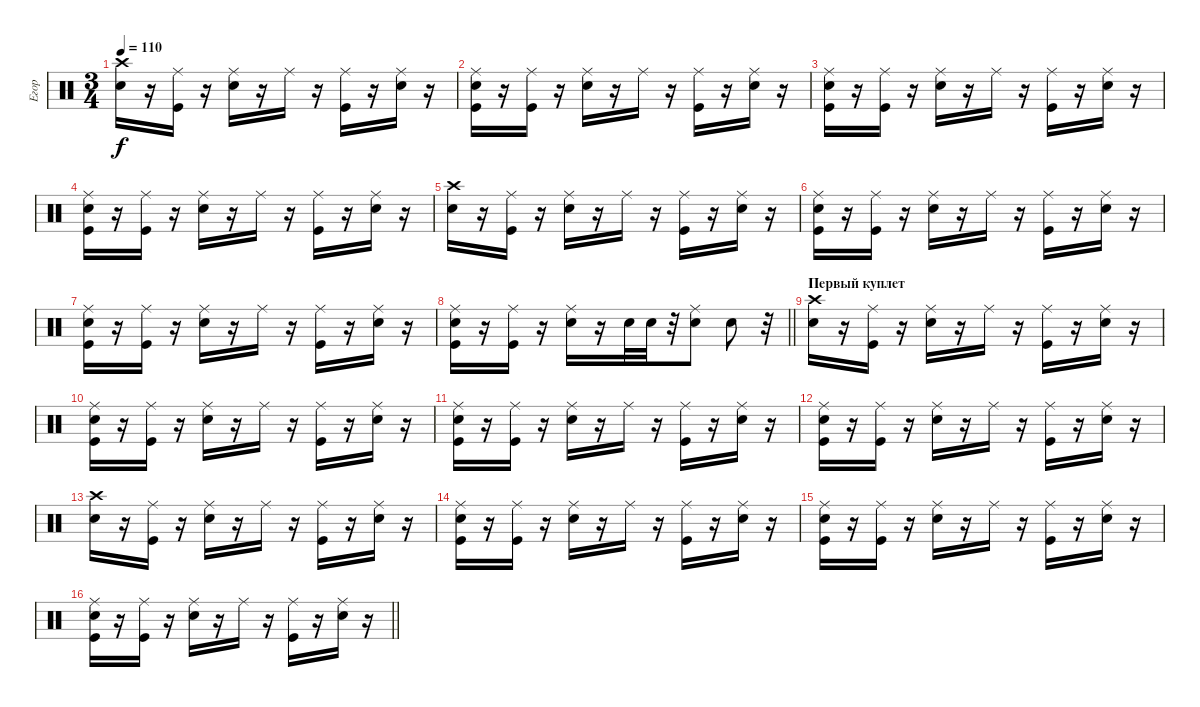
\track ("Егор" "Егор") {instrument percussion}
\staff {score}
\articulation defaults
\ts (3 4)
\tempo 110
\clef neutral
\ks c
("Snare (hit) 2" "Crash high (hit)").16{dy f} r.16 ("Ride (middle)" "Kick (hit)").16 r.16 ("Snare (hit) 2" "Ride (middle)").16 r.16 "Ride (middle)".16 r.16 ("Ride (middle)" "Kick (hit)").16 r.16 ("Ride (middle)" "Snare (hit) 2").16 r.16 |
("Kick (hit)" "Ride (middle)" "Snare (hit) 2").16 r.16 ("Ride (middle)" "Kick (hit)").16 r.16 ("Snare (hit) 2" "Ride (middle)").16 r.16 "Ride (middle)".16 r.16 ("Ride (middle)" "Kick (hit)").16 r.16 ("Ride (middle)" "Snare (hit) 2").16 r.16 |
("Kick (hit)" "Ride (middle)" "Snare (hit) 2").16 r.16 ("Ride (middle)" "Kick (hit)").16 r.16 ("Snare (hit) 2" "Ride (middle)").16 r.16 "Ride (middle)".16 r.16 ("Ride (middle)" "Kick (hit)").16 r.16 ("Ride (middle)" "Snare (hit) 2").16 r.16 |
("Kick (hit)" "Ride (middle)" "Snare (hit) 2").16 r.16 ("Ride (middle)" "Kick (hit)").16 r.16 ("Snare (hit) 2" "Ride (middle)").16 r.16 "Ride (middle)".16 r.16 ("Ride (middle)" "Kick (hit)").16 r.16 ("Ride (middle)" "Snare (hit) 2").16 r.16 |
("Snare (hit) 2" "Crash high (hit)").16 r.16 ("Ride (middle)" "Kick (hit)").16 r.16 ("Snare (hit) 2" "Ride (middle)").16 r.16 "Ride (middle)".16 r.16 ("Ride (middle)" "Kick (hit)").16 r.16 ("Ride (middle)" "Snare (hit) 2").16 r.16 |
("Kick (hit)" "Ride (middle)" "Snare (hit) 2").16 r.16 ("Ride (middle)" "Kick (hit)").16 r.16 ("Snare (hit) 2" "Ride (middle)").16 r.16 "Ride (middle)".16 r.16 ("Ride (middle)" "Kick (hit)").16 r.16 ("Ride (middle)" "Snare (hit) 2").16 r.16 |
("Kick (hit)" "Ride (middle)" "Snare (hit) 2").16 r.16 ("Ride (middle)" "Kick (hit)").16 r.16 ("Snare (hit) 2" "Ride (middle)").16 r.16 "Ride (middle)".16 r.16 ("Ride (middle)" "Kick (hit)").16 r.16 ("Ride (middle)" "Snare (hit) 2").16 r.16 |
\barLineRight lightlight
("Kick (hit)" "Ride (middle)" "Snare (hit) 2").16 r.16 ("Ride (middle)" "Kick (hit)").16 r.16 ("Ride (middle)" "Snare (hit) 2").16 r.16 "Snare (hit) 2".32 "Snare (hit) 2".32 r.32 ("Ride (middle)" "Snare (hit) 2").8 "Snare (hit) 2".8 r.32 |
\section ("" "Первый куплет")
("Snare (hit) 2" "Crash high (hit)").16 r.16 ("Ride (middle)" "Kick (hit)").16 r.16 ("Snare (hit) 2" "Ride (middle)").16 r.16 "Ride (middle)".16 r.16 ("Ride (middle)" "Kick (hit)").16 r.16 ("Ride (middle)" "Snare (hit) 2").16 r.16 |
("Kick (hit)" "Ride (middle)" "Snare (hit) 2").16 r.16 ("Ride (middle)" "Kick (hit)").16 r.16 ("Snare (hit) 2" "Ride (middle)").16 r.16 "Ride (middle)".16 r.16 ("Ride (middle)" "Kick (hit)").16 r.16 ("Ride (middle)" "Snare (hit) 2").16 r.16 |
("Kick (hit)" "Ride (middle)" "Snare (hit) 2").16 r.16 ("Ride (middle)" "Kick (hit)").16 r.16 ("Snare (hit) 2" "Ride (middle)").16 r.16 "Ride (middle)".16 r.16 ("Ride (middle)" "Kick (hit)").16 r.16 ("Ride (middle)" "Snare (hit) 2").16 r.16 |
("Kick (hit)" "Ride (middle)" "Snare (hit) 2").16 r.16 ("Ride (middle)" "Kick (hit)").16 r.16 ("Snare (hit) 2" "Ride (middle)").16 r.16 "Ride (middle)".16 r.16 ("Ride (middle)" "Kick (hit)").16 r.16 ("Ride (middle)" "Snare (hit) 2").16 r.16 |
("Snare (hit) 2" "Crash high (hit)").16 r.16 ("Ride (middle)" "Kick (hit)").16 r.16 ("Snare (hit) 2" "Ride (middle)").16 r.16 "Ride (middle)".16 r.16 ("Ride (middle)" "Kick (hit)").16 r.16 ("Ride (middle)" "Snare (hit) 2").16 r.16 |
("Kick (hit)" "Ride (middle)" "Snare (hit) 2").16 r.16 ("Ride (middle)" "Kick (hit)").16 r.16 ("Snare (hit) 2" "Ride (middle)").16 r.16 "Ride (middle)".16 r.16 ("Ride (middle)" "Kick (hit)").16 r.16 ("Ride (middle)" "Snare (hit) 2").16 r.16 |
("Kick (hit)" "Ride (middle)" "Snare (hit) 2").16 r.16 ("Ride (middle)" "Kick (hit)").16 r.16 ("Snare (hit) 2" "Ride (middle)").16 r.16 "Ride (middle)".16 r.16 ("Ride (middle)" "Kick (hit)").16 r.16 ("Ride (middle)" "Snare (hit) 2").16 r.16 |
\barLineRight lightlight
("Kick (hit)" "Ride (middle)" "Snare (hit) 2").16 r.16 ("Ride (middle)" "Kick (hit)").16 r.16 ("Snare (hit) 2" "Ride (middle)").16 r.16 "Ride (middle)".16 r.16 ("Ride (middle)" "Kick (hit)").16 r.16 ("Ride (middle)" "Snare (hit) 2").16 r.16
